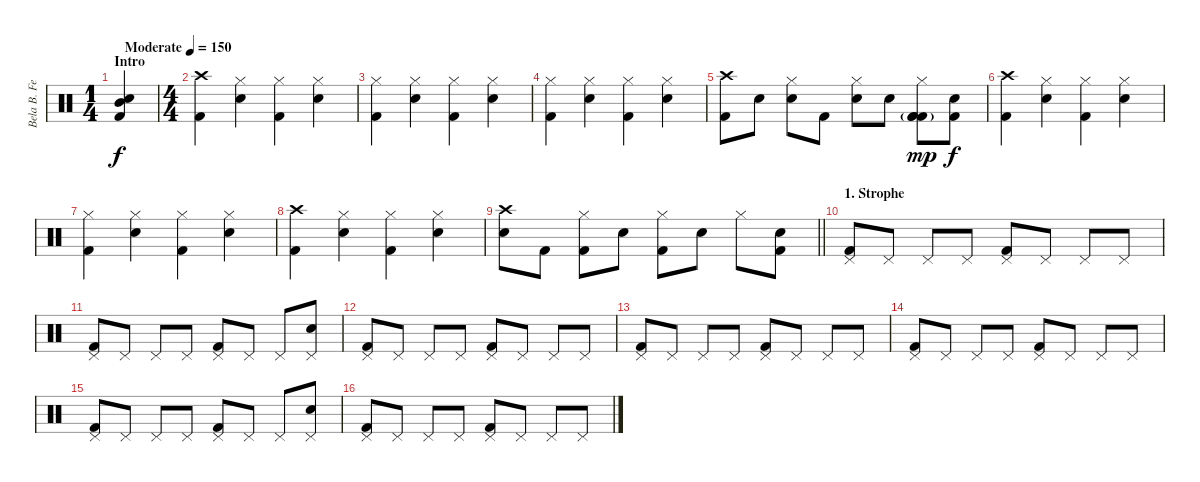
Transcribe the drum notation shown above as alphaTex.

\track ("Bela B. Felsenheimer" "Bela B. Fe") {instrument percussion}
\staff {score}
\articulation defaults
\ts (1 4)
\section ("" "Intro")
\tempo (150 "Moderate")
\clef neutral
\ks c
("Snare (hit) 2" "Mid Tom (hit)" "Kick (hit) 2").4{dy f} |
\ts (4 4)
("Kick (hit) 2" "Crash high (hit)").4 ("Snare (hit) 2" "Hi-Hat (closed)").4 ("Kick (hit) 2" "Hi-Hat (closed)").4 ("Snare (hit) 2" "Hi-Hat (closed)").4 |
("Kick (hit) 2" "Hi-Hat (closed)").4 ("Snare (hit) 2" "Hi-Hat (closed)").4 ("Kick (hit) 2" "Hi-Hat (closed)").4 ("Snare (hit) 2" "Hi-Hat (closed)").4 |
("Kick (hit) 2" "Hi-Hat (closed)").4 ("Snare (hit) 2" "Hi-Hat (closed)").4 ("Kick (hit) 2" "Hi-Hat (closed)").4 ("Snare (hit) 2" "Hi-Hat (closed)").4 |
("Crash high (hit)" "Kick (hit) 2").8 "Snare (hit) 2".8 ("Hi-Hat (closed)" "Snare (hit) 2").8 "Kick (hit) 2".8 ("Hi-Hat (closed)" "Snare (hit) 2").8 "Snare (hit) 2".8 ("Hi-Hat (closed)" "Kick (hit) 2"{g} "Kick (hit) 2"{g} "Kick (hit) 2"{g}).8{dy mp} ("Snare (hit) 2" "Kick (hit) 2").8{dy f} |
("Kick (hit) 2" "Crash high (hit)").4 ("Snare (hit) 2" "Hi-Hat (closed)").4 ("Kick (hit) 2" "Hi-Hat (closed)").4 ("Snare (hit) 2" "Hi-Hat (closed)").4 |
("Kick (hit) 2" "Hi-Hat (closed)").4 ("Snare (hit) 2" "Hi-Hat (closed)").4 ("Kick (hit) 2" "Hi-Hat (closed)").4 ("Snare (hit) 2" "Hi-Hat (closed)").4 |
("Kick (hit) 2" "Crash high (hit)").4 ("Snare (hit) 2" "Hi-Hat (closed)").4 ("Kick (hit) 2" "Hi-Hat (closed)").4 ("Snare (hit) 2" "Hi-Hat (closed)").4 |
\barLineRight lightlight
("Crash high (hit)" "Snare (hit) 2").8 "Kick (hit) 2".8 ("Hi-Hat (closed)" "Kick (hit) 2").8 "Snare (hit) 2".8 ("Hi-Hat (closed)" "Kick (hit) 2").8 "Snare (hit) 2".8 "Hi-Hat (closed)".8 ("Snare (hit) 2" "Kick (hit) 2").8 |
\section ("" "1. Strophe")
("Pedal Hi-Hat (hit)" "Kick (hit) 2").8 "Pedal Hi-Hat (hit)".8 "Pedal Hi-Hat (hit)".8 "Pedal Hi-Hat (hit)".8 ("Pedal Hi-Hat (hit)" "Kick (hit) 2").8 "Pedal Hi-Hat (hit)".8 "Pedal Hi-Hat (hit)".8 "Pedal Hi-Hat (hit)".8 |
("Pedal Hi-Hat (hit)" "Kick (hit) 2").8 "Pedal Hi-Hat (hit)".8 "Pedal Hi-Hat (hit)".8 "Pedal Hi-Hat (hit)".8 ("Pedal Hi-Hat (hit)" "Kick (hit) 2").8 "Pedal Hi-Hat (hit)".8 "Pedal Hi-Hat (hit)".8 ("Pedal Hi-Hat (hit)" "Snare (hit) 2").8 |
("Pedal Hi-Hat (hit)" "Kick (hit) 2").8 "Pedal Hi-Hat (hit)".8 "Pedal Hi-Hat (hit)".8 "Pedal Hi-Hat (hit)".8 ("Pedal Hi-Hat (hit)" "Kick (hit) 2").8 "Pedal Hi-Hat (hit)".8 "Pedal Hi-Hat (hit)".8 "Pedal Hi-Hat (hit)".8 |
("Pedal Hi-Hat (hit)" "Kick (hit) 2").8 "Pedal Hi-Hat (hit)".8 "Pedal Hi-Hat (hit)".8 "Pedal Hi-Hat (hit)".8 ("Pedal Hi-Hat (hit)" "Kick (hit) 2").8 "Pedal Hi-Hat (hit)".8 "Pedal Hi-Hat (hit)".8 "Pedal Hi-Hat (hit)".8 |
("Pedal Hi-Hat (hit)" "Kick (hit) 2").8 "Pedal Hi-Hat (hit)".8 "Pedal Hi-Hat (hit)".8 "Pedal Hi-Hat (hit)".8 ("Pedal Hi-Hat (hit)" "Kick (hit) 2").8 "Pedal Hi-Hat (hit)".8 "Pedal Hi-Hat (hit)".8 "Pedal Hi-Hat (hit)".8 |
("Pedal Hi-Hat (hit)" "Kick (hit) 2").8 "Pedal Hi-Hat (hit)".8 "Pedal Hi-Hat (hit)".8 "Pedal Hi-Hat (hit)".8 ("Pedal Hi-Hat (hit)" "Kick (hit) 2").8 "Pedal Hi-Hat (hit)".8 "Pedal Hi-Hat (hit)".8 ("Pedal Hi-Hat (hit)" "Snare (hit) 2").8 |
("Pedal Hi-Hat (hit)" "Kick (hit) 2").8 "Pedal Hi-Hat (hit)".8 "Pedal Hi-Hat (hit)".8 "Pedal Hi-Hat (hit)".8 ("Pedal Hi-Hat (hit)" "Kick (hit) 2").8 "Pedal Hi-Hat (hit)".8 "Pedal Hi-Hat (hit)".8 "Pedal Hi-Hat (hit)".8
